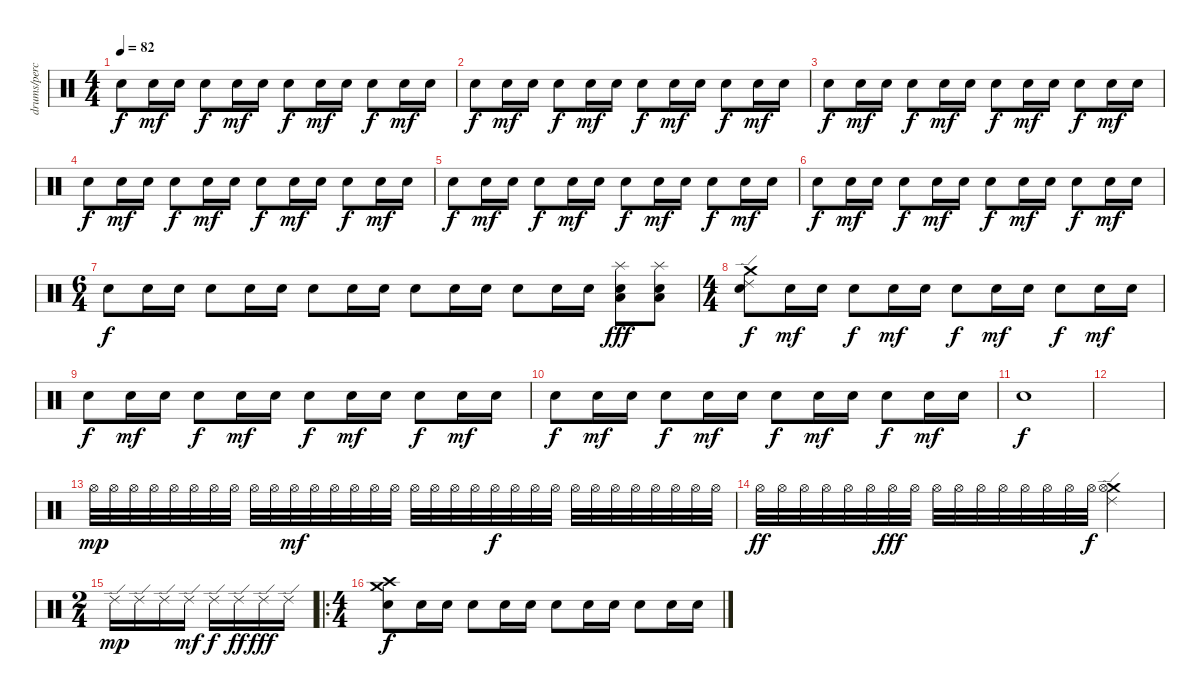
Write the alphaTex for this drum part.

\track ("drums/percussion" "drums/perc") {instrument percussion}
\staff {score}
\articulation defaults
\ts (4 4)
\tempo 82
\clef neutral
\ks c "Electric Snare (hit)".8{dy f} "Electric Snare (hit)".16{dy mf} "Electric Snare (hit)".16 "Electric Snare (hit)".8{dy f} "Electric Snare (hit)".16{dy mf} "Electric Snare (hit)".16 "Electric Snare (hit)".8{dy f} "Electric Snare (hit)".16{dy mf} "Electric Snare (hit)".16 "Electric Snare (hit)".8{dy f} "Electric Snare (hit)".16{dy mf} "Electric Snare (hit)".16
|
"Electric Snare (hit)".8{dy f} "Electric Snare (hit)".16{dy mf} "Electric Snare (hit)".16 "Electric Snare (hit)".8{dy f} "Electric Snare (hit)".16{dy mf} "Electric Snare (hit)".16 "Electric Snare (hit)".8{dy f} "Electric Snare (hit)".16{dy mf} "Electric Snare (hit)".16 "Electric Snare (hit)".8{dy f} "Electric Snare (hit)".16{dy mf} "Electric Snare (hit)".16 |
"Electric Snare (hit)".8{dy f} "Electric Snare (hit)".16{dy mf} "Electric Snare (hit)".16 "Electric Snare (hit)".8{dy f} "Electric Snare (hit)".16{dy mf} "Electric Snare (hit)".16 "Electric Snare (hit)".8{dy f} "Electric Snare (hit)".16{dy mf} "Electric Snare (hit)".16 "Electric Snare (hit)".8{dy f} "Electric Snare (hit)".16{dy mf} "Electric Snare (hit)".16 |
"Electric Snare (hit)".8{dy f} "Electric Snare (hit)".16{dy mf} "Electric Snare (hit)".16 "Electric Snare (hit)".8{dy f} "Electric Snare (hit)".16{dy mf} "Electric Snare (hit)".16 "Electric Snare (hit)".8{dy f} "Electric Snare (hit)".16{dy mf} "Electric Snare (hit)".16 "Electric Snare (hit)".8{dy f} "Electric Snare (hit)".16{dy mf} "Electric Snare (hit)".16 |
"Electric Snare (hit)".8{dy f} "Electric Snare (hit)".16{dy mf} "Electric Snare (hit)".16 "Electric Snare (hit)".8{dy f} "Electric Snare (hit)".16{dy mf} "Electric Snare (hit)".16 "Electric Snare (hit)".8{dy f} "Electric Snare (hit)".16{dy mf} "Electric Snare (hit)".16 "Electric Snare (hit)".8{dy f} "Electric Snare (hit)".16{dy mf} "Electric Snare (hit)".16 |
"Electric Snare (hit)".8{dy f} "Electric Snare (hit)".16{dy mf} "Electric Snare (hit)".16 "Electric Snare (hit)".8{dy f} "Electric Snare (hit)".16{dy mf} "Electric Snare (hit)".16 "Electric Snare (hit)".8{dy f} "Electric Snare (hit)".16{dy mf} "Electric Snare (hit)".16 "Electric Snare (hit)".8{dy f} "Electric Snare (hit)".16{dy mf} "Electric Snare (hit)".16 |
\ts (6 4)
"Electric Snare (hit)".8{dy f} "Electric Snare (hit)".16 "Electric Snare (hit)".16 "Electric Snare (hit)".8 "Electric Snare (hit)".16 "Electric Snare (hit)".16 "Electric Snare (hit)".8 "Electric Snare (hit)".16 "Electric Snare (hit)".16 "Electric Snare (hit)".8 "Electric Snare (hit)".16 "Electric Snare (hit)".16 "Electric Snare (hit)".8 "Electric Snare (hit)".16 "Electric Snare (hit)".16 ("Splash (hit)" "Low Floor Tom (hit)" "Electric Snare (hit)").8{dy fff} ("Splash (hit)" "Low Floor Tom (hit)" "Electric Snare (hit)").8 |
\ts (4 4)
("Crash medium (hit)" "Ride (edge) 2" "Electric Snare (hit)").8{dy f} "Electric Snare (hit)".16{dy mf} "Electric Snare (hit)".16 "Electric Snare (hit)".8{dy f} "Electric Snare (hit)".16{dy mf} "Electric Snare (hit)".16 "Electric Snare (hit)".8{dy f} "Electric Snare (hit)".16{dy mf} "Electric Snare (hit)".16 "Electric Snare (hit)".8{dy f} "Electric Snare (hit)".16{dy mf} "Electric Snare (hit)".16 |
"Electric Snare (hit)".8{dy f} "Electric Snare (hit)".16{dy mf} "Electric Snare (hit)".16 "Electric Snare (hit)".8{dy f} "Electric Snare (hit)".16{dy mf} "Electric Snare (hit)".16 "Electric Snare (hit)".8{dy f} "Electric Snare (hit)".16{dy mf} "Electric Snare (hit)".16 "Electric Snare (hit)".8{dy f} "Electric Snare (hit)".16{dy mf} "Electric Snare (hit)".16 |
"Electric Snare (hit)".8{dy f} "Electric Snare (hit)".16{dy mf} "Electric Snare (hit)".16 "Electric Snare (hit)".8{dy f} "Electric Snare (hit)".16{dy mf} "Electric Snare (hit)".16 "Electric Snare (hit)".8{dy f} "Electric Snare (hit)".16{dy mf} "Electric Snare (hit)".16 "Electric Snare (hit)".8{dy f} "Electric Snare (hit)".16{dy mf} "Electric Snare (hit)".16 |
"Electric Snare (hit)".1{dy f} |
|
"Hi-Hat (open)".32{dy mp} "Hi-Hat (open)".32 "Hi-Hat (open)".32 "Hi-Hat (open)".32 "Hi-Hat (open)".32 "Hi-Hat (open)".32 "Hi-Hat (open)".32 "Hi-Hat (open)".32 "Hi-Hat (open)".32 "Hi-Hat (open)".32 "Hi-Hat (open)".32{dy mf} "Hi-Hat (open)".32 "Hi-Hat (open)".32 "Hi-Hat (open)".32 "Hi-Hat (open)".32 "Hi-Hat (open)".32 "Hi-Hat (open)".32 "Hi-Hat (open)".32 "Hi-Hat (open)".32 "Hi-Hat (open)".32 "Hi-Hat (open)".32{dy f} "Hi-Hat (open)".32 "Hi-Hat (open)".32 "Hi-Hat (open)".32 "Hi-Hat (open)".32 "Hi-Hat (open)".32 "Hi-Hat (open)".32 "Hi-Hat (open)".32 "Hi-Hat (open)".32 "Hi-Hat (open)".32 "Hi-Hat (open)".32 "Hi-Hat (open)".32 |
"Hi-Hat (open)".32{dy ff} "Hi-Hat (open)".32 "Hi-Hat (open)".32 "Hi-Hat (open)".32 "Hi-Hat (open)".32 "Hi-Hat (open)".32 "Hi-Hat (open)".32{dy fff} "Hi-Hat (open)".32 "Hi-Hat (open)".32 "Hi-Hat (open)".32 "Hi-Hat (open)".32 "Hi-Hat (open)".32 "Hi-Hat (open)".32 "Hi-Hat (open)".32 "Hi-Hat (open)".32 "Hi-Hat (open)".32{dy f} ("Ride (edge) 2" "Crash medium (hit)" "Hi-Hat (open)").2 |
\ts (2 4)
"Ride (edge) 2".16{dy mp} "Ride (edge) 2".16 "Ride (edge) 2".16 "Ride (edge) 2".16{dy mf} "Ride (edge) 2".16{dy f} "Ride (edge) 2".16{dy ff} "Ride (edge) 2".16{dy fff} "Ride (edge) 2".16 |
\ro
\ts (4 4)
("Crash medium (hit)" "Crash high (hit)" "Electric Snare (hit)").8{dy f} "Electric Snare (hit)".16 "Electric Snare (hit)".16 "Electric Snare (hit)".8 "Electric Snare (hit)".16 "Electric Snare (hit)".16 "Electric Snare (hit)".8 "Electric Snare (hit)".16 "Electric Snare (hit)".16 "Electric Snare (hit)".8 "Electric Snare (hit)".16 "Electric Snare (hit)".16
